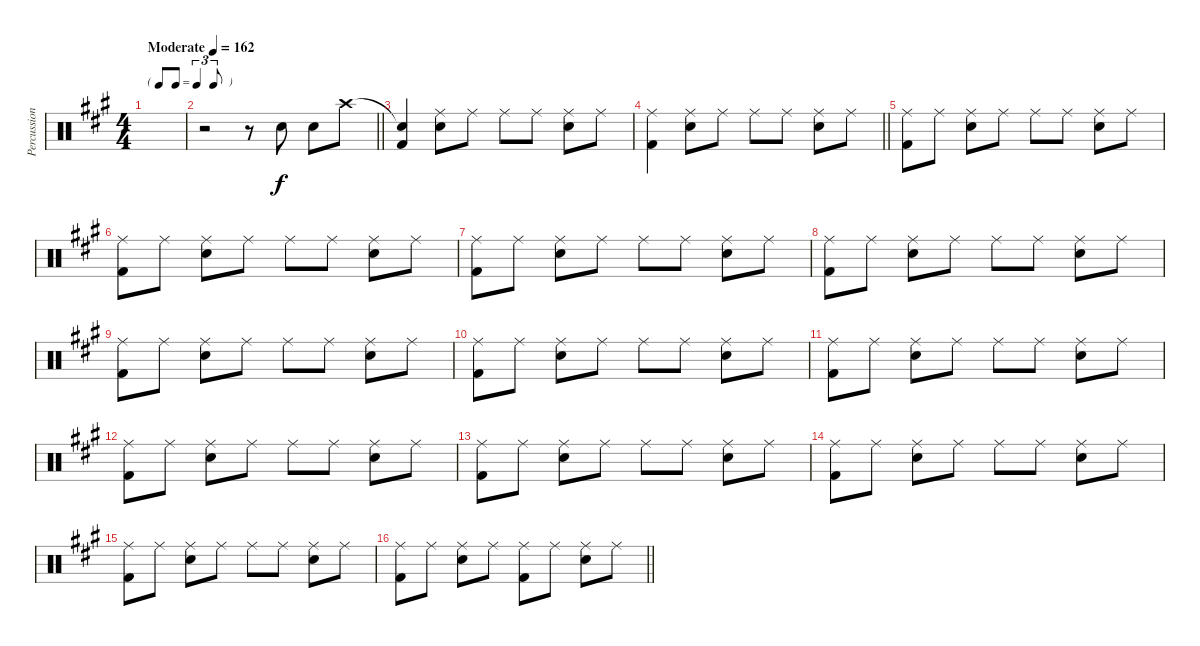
\track ("Percussion" "Percussion") {instrument percussion}
\staff {score}
\articulation defaults
\ts (4 4)
\tf triplet8th
\tempo (162 "Moderate")
\clef neutral
\ks a
|
\barLineRight lightlight
r.2 r.8 "Snare (hit) 2".8 "Snare (hit) 2".8 "Crash high (hit)".8 |
("Snare (hit)"{t} "Kick (hit) 2").4 ("Ride (middle)" "Snare (hit) 2").8 "Ride (middle)".8 "Ride (middle)".8 "Ride (middle)".8 ("Ride (middle)" "Snare (hit) 2").8 "Ride (middle)".8 |
\barLineRight lightlight
("Ride (middle)" "Kick (hit) 2").4 ("Ride (middle)" "Snare (hit) 2").8 "Ride (middle)".8 "Ride (middle)".8 "Ride (middle)".8 ("Ride (middle)" "Snare (hit) 2").8 "Ride (middle)".8 |
("Ride (middle)" "Kick (hit) 2").8 "Ride (middle)".8 ("Ride (middle)" "Snare (hit) 2").8 "Ride (middle)".8 "Ride (middle)".8 "Ride (middle)".8 ("Ride (middle)" "Snare (hit) 2").8 "Ride (middle)".8 |
("Ride (middle)" "Kick (hit) 2").8 "Ride (middle)".8 ("Ride (middle)" "Snare (hit) 2").8 "Ride (middle)".8 "Ride (middle)".8 "Ride (middle)".8 ("Ride (middle)" "Snare (hit) 2").8 "Ride (middle)".8 |
("Ride (middle)" "Kick (hit) 2").8 "Ride (middle)".8 ("Ride (middle)" "Snare (hit) 2").8 "Ride (middle)".8 "Ride (middle)".8 "Ride (middle)".8 ("Ride (middle)" "Snare (hit) 2").8 "Ride (middle)".8 |
("Ride (middle)" "Kick (hit) 2").8 "Ride (middle)".8 ("Ride (middle)" "Snare (hit) 2").8 "Ride (middle)".8 "Ride (middle)".8 "Ride (middle)".8 ("Ride (middle)" "Snare (hit) 2").8 "Ride (middle)".8 |
("Ride (middle)" "Kick (hit) 2").8 "Ride (middle)".8 ("Ride (middle)" "Snare (hit) 2").8 "Ride (middle)".8 "Ride (middle)".8 "Ride (middle)".8 ("Ride (middle)" "Snare (hit) 2").8 "Ride (middle)".8 |
("Ride (middle)" "Kick (hit) 2").8 "Ride (middle)".8 ("Ride (middle)" "Snare (hit) 2").8 "Ride (middle)".8 "Ride (middle)".8 "Ride (middle)".8 ("Ride (middle)" "Snare (hit) 2").8 "Ride (middle)".8 |
("Ride (middle)" "Kick (hit) 2").8 "Ride (middle)".8 ("Ride (middle)" "Snare (hit) 2").8 "Ride (middle)".8 "Ride (middle)".8 "Ride (middle)".8 ("Ride (middle)" "Snare (hit) 2").8 "Ride (middle)".8 |
("Ride (middle)" "Kick (hit) 2").8 "Ride (middle)".8 ("Ride (middle)" "Snare (hit) 2").8 "Ride (middle)".8 "Ride (middle)".8 "Ride (middle)".8 ("Ride (middle)" "Snare (hit) 2").8 "Ride (middle)".8 |
("Ride (middle)" "Kick (hit) 2").8 "Ride (middle)".8 ("Ride (middle)" "Snare (hit) 2").8 "Ride (middle)".8 "Ride (middle)".8 "Ride (middle)".8 ("Ride (middle)" "Snare (hit) 2").8 "Ride (middle)".8 |
("Ride (middle)" "Kick (hit) 2").8 "Ride (middle)".8 ("Ride (middle)" "Snare (hit) 2").8 "Ride (middle)".8 "Ride (middle)".8 "Ride (middle)".8 ("Ride (middle)" "Snare (hit) 2").8 "Ride (middle)".8 |
("Ride (middle)" "Kick (hit) 2").8 "Ride (middle)".8 ("Ride (middle)" "Snare (hit) 2").8 "Ride (middle)".8 "Ride (middle)".8 "Ride (middle)".8 ("Ride (middle)" "Snare (hit) 2").8 "Ride (middle)".8 |
\barLineRight lightlight
("Ride (middle)" "Kick (hit) 2").8 "Ride (middle)".8 ("Ride (middle)" "Snare (hit) 2").8 "Ride (middle)".8 ("Ride (middle)" "Kick (hit) 2").8 "Ride (middle)".8 ("Ride (middle)" "Snare (hit) 2").8 "Ride (middle)".8
